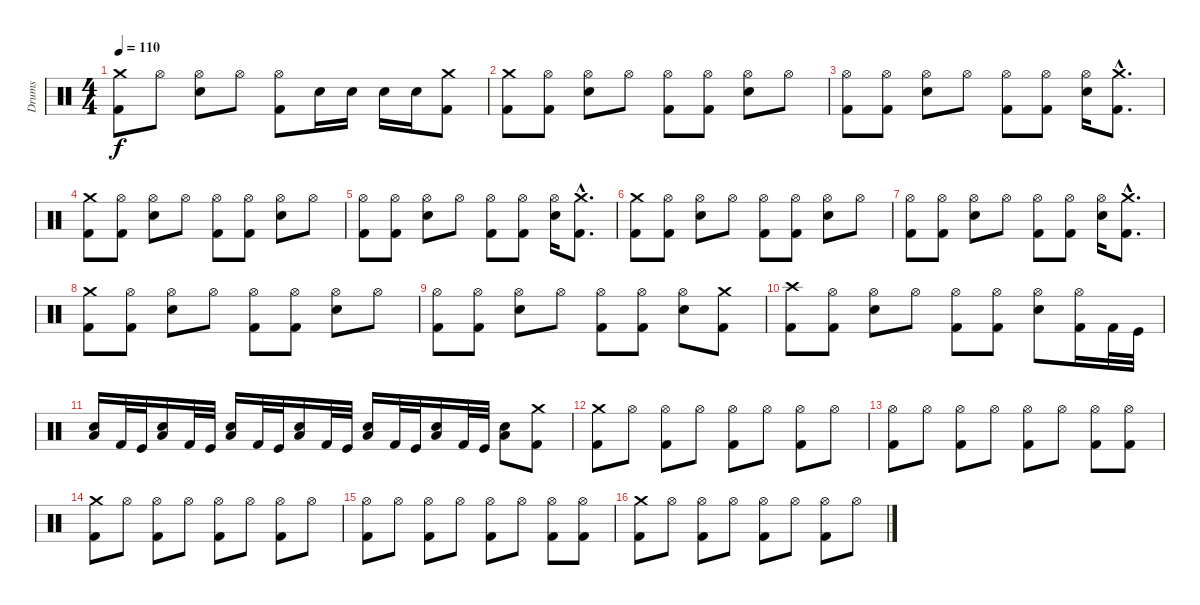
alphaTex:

\track ("Drums" "Drums") {instrument percussion}
\staff {score}
\articulation defaults
\ts (4 4)
\tempo 110
\clef neutral
\ks c
("Crash medium (hit)" "Kick (hit) 2").8{dy f} "Hi-Hat (open)".8 ("Hi-Hat (open)" "Snare (hit) 2").8 "Hi-Hat (open)".8 ("Hi-Hat (open)" "Kick (hit) 2").8 "Snare (hit) 2".16 "Snare (hit) 2".16 "Snare (hit) 2".16 "Snare (hit) 2".16 ("Crash medium (hit)" "Kick (hit) 2").8 |
("Crash medium (hit)" "Kick (hit) 2").8 ("Hi-Hat (open)" "Kick (hit) 2").8 ("Hi-Hat (open)" "Snare (hit) 2").8 "Hi-Hat (open)".8 ("Hi-Hat (open)" "Kick (hit) 2").8 ("Hi-Hat (open)" "Kick (hit) 2").8 ("Hi-Hat (open)" "Snare (hit) 2").8 "Hi-Hat (open)".8 |
("Hi-Hat (open)" "Kick (hit) 2").8 ("Hi-Hat (open)" "Kick (hit) 2").8 ("Hi-Hat (open)" "Snare (hit) 2").8 "Hi-Hat (open)".8 ("Hi-Hat (open)" "Kick (hit) 2").8 ("Hi-Hat (open)" "Kick (hit) 2").8 ("Hi-Hat (open)" "Snare (hit) 2").16 ("Crash medium (hit)"{hac} "Kick (hit) 2"{hac}).8{d} |
("Crash medium (hit)" "Kick (hit) 2").8 ("Hi-Hat (open)" "Kick (hit) 2").8 ("Hi-Hat (open)" "Snare (hit) 2").8 "Hi-Hat (open)".8 ("Hi-Hat (open)" "Kick (hit) 2").8 ("Hi-Hat (open)" "Kick (hit) 2").8 ("Hi-Hat (open)" "Snare (hit) 2").8 "Hi-Hat (open)".8 |
("Hi-Hat (open)" "Kick (hit) 2").8 ("Hi-Hat (open)" "Kick (hit) 2").8 ("Hi-Hat (open)" "Snare (hit) 2").8 "Hi-Hat (open)".8 ("Hi-Hat (open)" "Kick (hit) 2").8 ("Hi-Hat (open)" "Kick (hit) 2").8 ("Hi-Hat (open)" "Snare (hit) 2").16 ("Crash medium (hit)"{hac} "Kick (hit) 2"{hac}).8{d} |
("Crash medium (hit)" "Kick (hit) 2").8 ("Hi-Hat (open)" "Kick (hit) 2").8 ("Hi-Hat (open)" "Snare (hit) 2").8 "Hi-Hat (open)".8 ("Hi-Hat (open)" "Kick (hit) 2").8 ("Hi-Hat (open)" "Kick (hit) 2").8 ("Hi-Hat (open)" "Snare (hit) 2").8 "Hi-Hat (open)".8 |
("Hi-Hat (open)" "Kick (hit) 2").8 ("Hi-Hat (open)" "Kick (hit) 2").8 ("Hi-Hat (open)" "Snare (hit) 2").8 "Hi-Hat (open)".8 ("Hi-Hat (open)" "Kick (hit) 2").8 ("Hi-Hat (open)" "Kick (hit) 2").8 ("Hi-Hat (open)" "Snare (hit) 2").16 ("Crash medium (hit)"{hac} "Kick (hit) 2"{hac}).8{d} |
("Crash medium (hit)" "Kick (hit) 2").8 ("Hi-Hat (open)" "Kick (hit) 2").8 ("Hi-Hat (open)" "Snare (hit) 2").8 "Hi-Hat (open)".8 ("Hi-Hat (open)" "Kick (hit) 2").8 ("Hi-Hat (open)" "Kick (hit) 2").8 ("Hi-Hat (open)" "Snare (hit) 2").8 "Hi-Hat (open)".8 |
("Hi-Hat (open)" "Kick (hit) 2").8 ("Hi-Hat (open)" "Kick (hit) 2").8 ("Hi-Hat (open)" "Snare (hit) 2").8 "Hi-Hat (open)".8 ("Hi-Hat (open)" "Kick (hit) 2").8 ("Hi-Hat (open)" "Kick (hit) 2").8 ("Hi-Hat (open)" "Snare (hit) 2").8 ("Crash medium (hit)" "Kick (hit) 2").8 |
("Crash high (hit)" "Kick (hit) 2").8 ("Hi-Hat (open)" "Kick (hit) 2").8 ("Hi-Hat (open)" "Snare (hit) 2").8 "Hi-Hat (open)".8 ("Hi-Hat (open)" "Kick (hit) 2").8 ("Hi-Hat (open)" "Kick (hit) 2").8 ("Hi-Hat (open)" "Snare (hit) 2").8 ("Hi-Hat (open)" "Kick (hit) 2").16 "Kick (hit) 2".32 "Kick (hit)".32 |
("Low Floor Tom (hit)" "Snare (hit) 2").16 "Kick (hit) 2".32 "Kick (hit)".32 ("Low Floor Tom (hit)" "Snare (hit) 2").16 "Kick (hit) 2".32 "Kick (hit)".32 ("Low Floor Tom (hit)" "Snare (hit) 2").16 "Kick (hit) 2".32 "Kick (hit)".32 ("Low Floor Tom (hit)" "Snare (hit) 2").16 "Kick (hit) 2".32 "Kick (hit)".32 ("Low Floor Tom (hit)" "Snare (hit) 2").16 "Kick (hit) 2".32 "Kick (hit)".32 ("Low Floor Tom (hit)" "Snare (hit) 2").16 "Kick (hit) 2".32 "Kick (hit)".32 ("Low Floor Tom (hit)" "Snare (hit) 2").8 ("Crash medium (hit)" "Kick (hit) 2").8 |
("Crash medium (hit)" "Kick (hit) 2").8 "Hi-Hat (open)".8 ("Hi-Hat (open)" "Kick (hit) 2").8 "Hi-Hat (open)".8 ("Hi-Hat (open)" "Kick (hit) 2").8 "Hi-Hat (open)".8 ("Hi-Hat (open)" "Kick (hit) 2").8 "Hi-Hat (open)".8 |
("Hi-Hat (open)" "Kick (hit) 2").8 "Hi-Hat (open)".8 ("Hi-Hat (open)" "Kick (hit) 2").8 "Hi-Hat (open)".8 ("Hi-Hat (open)" "Kick (hit) 2").8 "Hi-Hat (open)".8 ("Hi-Hat (open)" "Kick (hit) 2").8 ("Hi-Hat (open)" "Kick (hit) 2").8 |
("Crash medium (hit)" "Kick (hit) 2").8 "Hi-Hat (open)".8 ("Hi-Hat (open)" "Kick (hit) 2").8 "Hi-Hat (open)".8 ("Hi-Hat (open)" "Kick (hit) 2").8 "Hi-Hat (open)".8 ("Hi-Hat (open)" "Kick (hit) 2").8 "Hi-Hat (open)".8 |
("Hi-Hat (open)" "Kick (hit) 2").8 "Hi-Hat (open)".8 ("Hi-Hat (open)" "Kick (hit) 2").8 "Hi-Hat (open)".8 ("Hi-Hat (open)" "Kick (hit) 2").8 "Hi-Hat (open)".8 ("Hi-Hat (open)" "Kick (hit) 2").8 ("Hi-Hat (open)" "Kick (hit) 2").8 |
("Crash medium (hit)" "Kick (hit) 2").8 "Hi-Hat (open)".8 ("Hi-Hat (open)" "Kick (hit) 2").8 "Hi-Hat (open)".8 ("Hi-Hat (open)" "Kick (hit) 2").8 "Hi-Hat (open)".8 ("Hi-Hat (open)" "Kick (hit) 2").8 "Hi-Hat (open)".8
